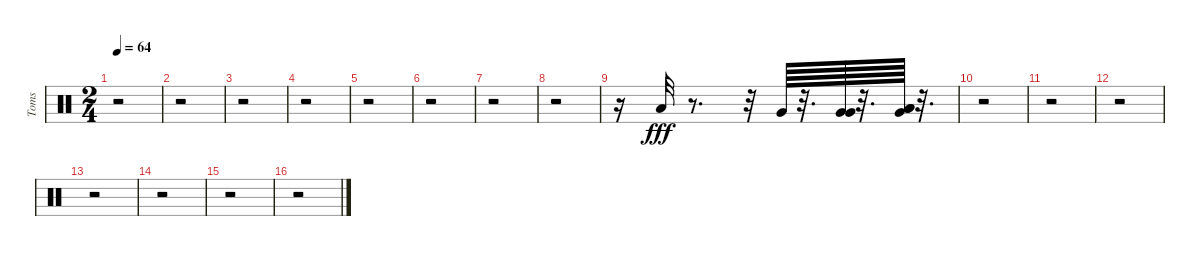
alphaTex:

\track ("Toms" "Toms") {instrument percussion}
\staff {score}
\articulation defaults
\ts (2 4)
\tempo 64
\clef neutral
\ks c
r.2{dy fff} |
r.2 |
r.2 |
r.2 |
r.2 |
r.2 |
r.2 |
r.2 |
r.16 "Low Tom (hit)".32 r.8{d} r.32 "Very Low Tom (hit)".64 r.32{d} ("Very Low Tom (hit)" "Very Low Tom (hit)").64 r.32{d} ("Very Low Tom (hit)" "Low Floor Tom (hit)" "Low Floor Tom (hit)").64 r.32{d} |
r.2 |
r.2 |
r.2 |
r.2 |
r.2 |
r.2 |
r.2
